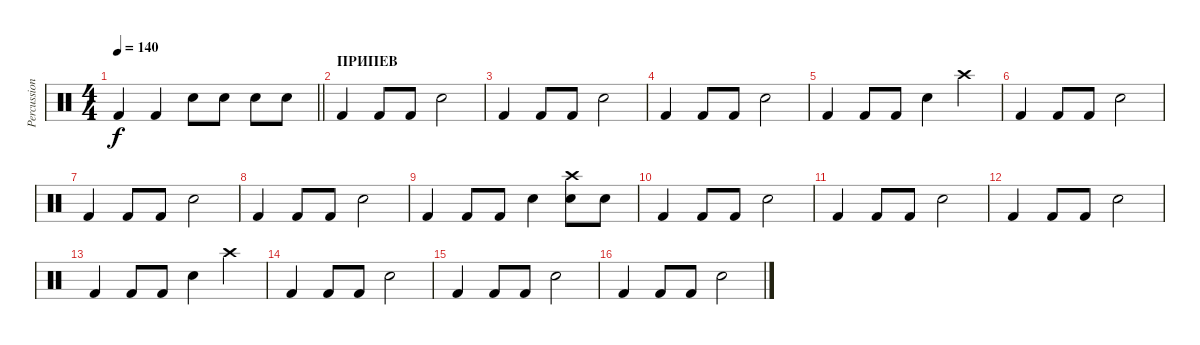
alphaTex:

\track ("Percussion" "Percussion") {instrument percussion}
\staff {score}
\articulation defaults
\ts (4 4)
\tempo 140
\clef neutral
\barLineRight lightlight
\ks c "Kick (hit) 2".4{dy f} "Kick (hit) 2".4 "Snare (hit) 2".8 "Snare (hit) 2".8 "Snare (hit) 2".8 "Snare (hit) 2".8
|
\section ("" "ПРИПЕВ")
"Kick (hit) 2".4 "Kick (hit) 2".8 "Kick (hit) 2".8 "Snare (hit) 2".2 |
"Kick (hit) 2".4 "Kick (hit) 2".8 "Kick (hit) 2".8 "Snare (hit) 2".2 |
"Kick (hit) 2".4 "Kick (hit) 2".8 "Kick (hit) 2".8 "Snare (hit) 2".2 |
"Kick (hit) 2".4 "Kick (hit) 2".8 "Kick (hit) 2".8 "Snare (hit) 2".4 "Crash high (hit)".4 |
"Kick (hit) 2".4 "Kick (hit) 2".8 "Kick (hit) 2".8 "Snare (hit) 2".2 |
"Kick (hit) 2".4 "Kick (hit) 2".8 "Kick (hit) 2".8 "Snare (hit) 2".2 |
"Kick (hit) 2".4 "Kick (hit) 2".8 "Kick (hit) 2".8 "Snare (hit) 2".2 |
"Kick (hit) 2".4 "Kick (hit) 2".8 "Kick (hit) 2".8 "Snare (hit) 2".4 ("Crash high (hit)" "Snare (hit) 2").8 "Snare (hit) 2".8 |
"Kick (hit) 2".4 "Kick (hit) 2".8 "Kick (hit) 2".8 "Snare (hit) 2".2 |
"Kick (hit) 2".4 "Kick (hit) 2".8 "Kick (hit) 2".8 "Snare (hit) 2".2 |
"Kick (hit) 2".4 "Kick (hit) 2".8 "Kick (hit) 2".8 "Snare (hit) 2".2 |
"Kick (hit) 2".4 "Kick (hit) 2".8 "Kick (hit) 2".8 "Snare (hit) 2".4 "Crash high (hit)".4 |
"Kick (hit) 2".4 "Kick (hit) 2".8 "Kick (hit) 2".8 "Snare (hit) 2".2 |
"Kick (hit) 2".4 "Kick (hit) 2".8 "Kick (hit) 2".8 "Snare (hit) 2".2 |
"Kick (hit) 2".4 "Kick (hit) 2".8 "Kick (hit) 2".8 "Snare (hit) 2".2
